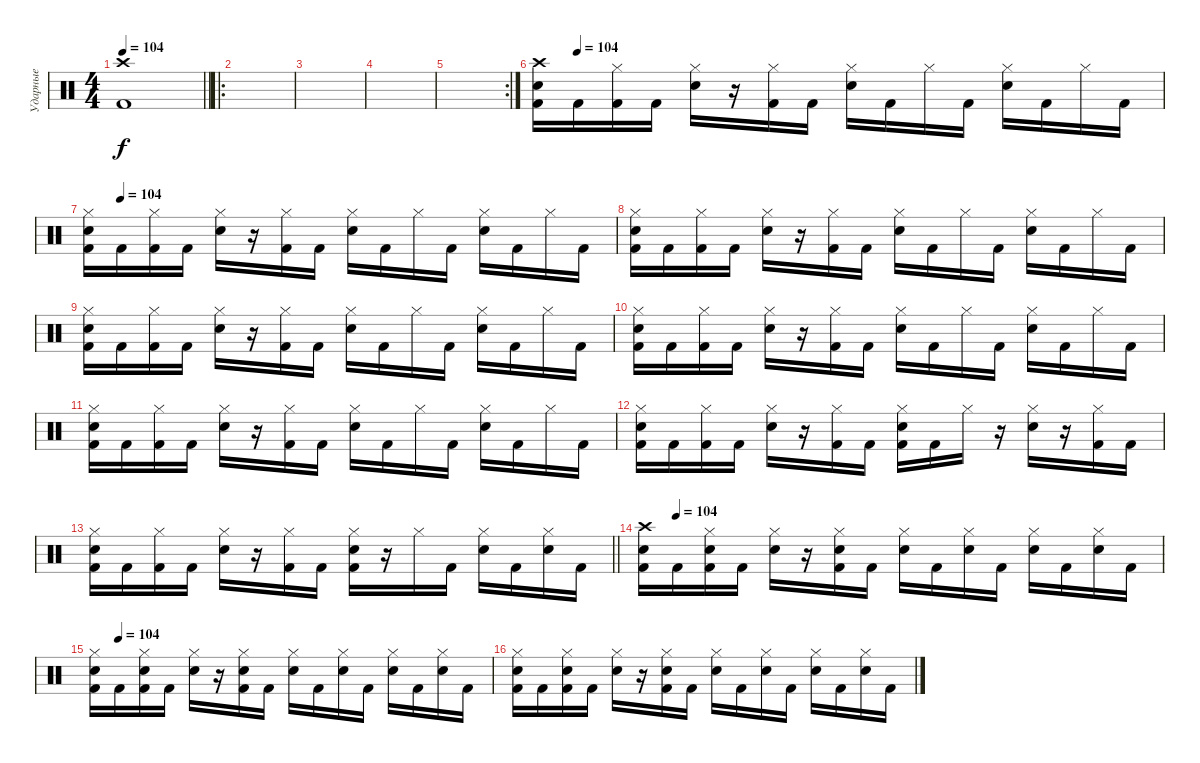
\track ("Ударные" "Ударные") {instrument percussion}
\staff {score}
\articulation defaults
\ts (4 4)
\tempo 104
\clef neutral
\barLineRight lightlight
\ks c
("Crash high (hit)" "Kick (hit) 2").1{dy f} |
\ro
|
|
|
\rc 2
|
\tempo (104 0.0625)
("Crash high (hit)" "Snare (hit) 2" "Kick (hit) 2").16 "Kick (hit) 2".16 ("Hi-Hat (closed)" "Kick (hit) 2").16 "Kick (hit) 2".16 ("Hi-Hat (closed)" "Snare (hit) 2").16 r.16 ("Hi-Hat (closed)" "Kick (hit) 2").16 "Kick (hit) 2".16 ("Hi-Hat (closed)" "Snare (hit) 2").16 "Kick (hit) 2".16 "Hi-Hat (closed)".16 "Kick (hit) 2".16 ("Hi-Hat (closed)" "Snare (hit) 2").16 "Kick (hit) 2".16 "Hi-Hat (closed)".16 "Kick (hit) 2".16 |
\tempo (104 0.0625)
("Hi-Hat (closed)" "Snare (hit) 2" "Kick (hit) 2").16 "Kick (hit) 2".16 ("Hi-Hat (closed)" "Kick (hit) 2").16 "Kick (hit) 2".16 ("Hi-Hat (closed)" "Snare (hit) 2").16 r.16 ("Hi-Hat (closed)" "Kick (hit) 2").16 "Kick (hit) 2".16 ("Hi-Hat (closed)" "Snare (hit) 2").16 "Kick (hit) 2".16 "Hi-Hat (closed)".16 "Kick (hit) 2".16 ("Hi-Hat (closed)" "Snare (hit) 2").16 "Kick (hit) 2".16 "Hi-Hat (closed)".16 "Kick (hit) 2".16 |
("Hi-Hat (closed)" "Snare (hit) 2" "Kick (hit) 2").16 "Kick (hit) 2".16 ("Hi-Hat (closed)" "Kick (hit) 2").16 "Kick (hit) 2".16 ("Hi-Hat (closed)" "Snare (hit) 2").16 r.16 ("Hi-Hat (closed)" "Kick (hit) 2").16 "Kick (hit) 2".16 ("Hi-Hat (closed)" "Snare (hit) 2").16 "Kick (hit) 2".16 "Hi-Hat (closed)".16 "Kick (hit) 2".16 ("Hi-Hat (closed)" "Snare (hit) 2").16 "Kick (hit) 2".16 "Hi-Hat (closed)".16 "Kick (hit) 2".16 |
("Hi-Hat (closed)" "Snare (hit) 2" "Kick (hit) 2").16 "Kick (hit) 2".16 ("Hi-Hat (closed)" "Kick (hit) 2").16 "Kick (hit) 2".16 ("Hi-Hat (closed)" "Snare (hit) 2").16 r.16 ("Hi-Hat (closed)" "Kick (hit) 2").16 "Kick (hit) 2".16 ("Hi-Hat (closed)" "Snare (hit) 2").16 "Kick (hit) 2".16 "Hi-Hat (closed)".16 "Kick (hit) 2".16 ("Hi-Hat (closed)" "Snare (hit) 2").16 "Kick (hit) 2".16 "Hi-Hat (closed)".16 "Kick (hit) 2".16 |
("Hi-Hat (closed)" "Snare (hit) 2" "Kick (hit) 2").16 "Kick (hit) 2".16 ("Hi-Hat (closed)" "Kick (hit) 2").16 "Kick (hit) 2".16 ("Hi-Hat (closed)" "Snare (hit) 2").16 r.16 ("Hi-Hat (closed)" "Kick (hit) 2").16 "Kick (hit) 2".16 ("Hi-Hat (closed)" "Snare (hit) 2").16 "Kick (hit) 2".16 "Hi-Hat (closed)".16 "Kick (hit) 2".16 ("Hi-Hat (closed)" "Snare (hit) 2").16 "Kick (hit) 2".16 "Hi-Hat (closed)".16 "Kick (hit) 2".16 |
("Hi-Hat (closed)" "Snare (hit) 2" "Kick (hit) 2").16 "Kick (hit) 2".16 ("Hi-Hat (closed)" "Kick (hit) 2").16 "Kick (hit) 2".16 ("Hi-Hat (closed)" "Snare (hit) 2").16 r.16 ("Hi-Hat (closed)" "Kick (hit) 2").16 "Kick (hit) 2".16 ("Hi-Hat (closed)" "Snare (hit) 2").16 "Kick (hit) 2".16 "Hi-Hat (closed)".16 "Kick (hit) 2".16 ("Hi-Hat (closed)" "Snare (hit) 2").16 "Kick (hit) 2".16 "Hi-Hat (closed)".16 "Kick (hit) 2".16 |
("Hi-Hat (closed)" "Snare (hit) 2" "Kick (hit) 2").16 "Kick (hit) 2".16 ("Hi-Hat (closed)" "Kick (hit) 2").16 "Kick (hit) 2".16 ("Hi-Hat (closed)" "Snare (hit) 2").16 r.16 ("Hi-Hat (closed)" "Kick (hit) 2").16 "Kick (hit) 2".16 ("Hi-Hat (closed)" "Snare (hit) 2" "Kick (hit) 2").16 "Kick (hit) 2".16 "Hi-Hat (closed)".16 r.16 ("Hi-Hat (closed)" "Snare (hit) 2").16 r.16 ("Hi-Hat (closed)" "Kick (hit) 2").16 "Kick (hit) 2".16 |
\barLineRight lightlight
("Hi-Hat (closed)" "Snare (hit) 2" "Kick (hit) 2").16 "Kick (hit) 2".16 ("Hi-Hat (closed)" "Kick (hit) 2").16 "Kick (hit) 2".16 ("Hi-Hat (closed)" "Snare (hit) 2").16 r.16 ("Hi-Hat (closed)" "Kick (hit) 2").16 "Kick (hit) 2".16 ("Hi-Hat (closed)" "Snare (hit) 2" "Kick (hit) 2").16 r.16 "Hi-Hat (closed)".16 "Kick (hit) 2".16 ("Hi-Hat (closed)" "Snare (hit) 2").16 "Kick (hit) 2".16 ("Hi-Hat (closed)" "Snare (hit) 2").16 "Kick (hit) 2".16 |
\tempo (104 0.0625)
("Crash high (hit)" "Snare (hit) 2" "Kick (hit) 2").16 "Kick (hit) 2".16 ("Hi-Hat (closed)" "Snare (hit) 2" "Kick (hit) 2").16 "Kick (hit) 2".16 ("Hi-Hat (closed)" "Snare (hit) 2").16 r.16 ("Hi-Hat (closed)" "Snare (hit) 2" "Kick (hit) 2").16 "Kick (hit) 2".16 ("Hi-Hat (closed)" "Snare (hit) 2").16 "Kick (hit) 2".16 ("Hi-Hat (closed)" "Snare (hit) 2").16 "Kick (hit) 2".16 ("Hi-Hat (closed)" "Snare (hit) 2").16 "Kick (hit) 2".16 ("Hi-Hat (closed)" "Snare (hit) 2").16 "Kick (hit) 2".16 |
\tempo (104 0.0625)
("Hi-Hat (closed)" "Snare (hit) 2" "Kick (hit) 2").16 "Kick (hit) 2".16 ("Hi-Hat (closed)" "Snare (hit) 2" "Kick (hit) 2").16 "Kick (hit) 2".16 ("Hi-Hat (closed)" "Snare (hit) 2").16 r.16 ("Hi-Hat (closed)" "Snare (hit) 2" "Kick (hit) 2").16 "Kick (hit) 2".16 ("Hi-Hat (closed)" "Snare (hit) 2").16 "Kick (hit) 2".16 ("Hi-Hat (closed)" "Snare (hit) 2").16 "Kick (hit) 2".16 ("Hi-Hat (closed)" "Snare (hit) 2").16 "Kick (hit) 2".16 ("Hi-Hat (closed)" "Snare (hit) 2").16 "Kick (hit) 2".16 |
("Hi-Hat (closed)" "Snare (hit) 2" "Kick (hit) 2").16 "Kick (hit) 2".16 ("Hi-Hat (closed)" "Snare (hit) 2" "Kick (hit) 2").16 "Kick (hit) 2".16 ("Hi-Hat (closed)" "Snare (hit) 2").16 r.16 ("Hi-Hat (closed)" "Snare (hit) 2" "Kick (hit) 2").16 "Kick (hit) 2".16 ("Hi-Hat (closed)" "Snare (hit) 2").16 "Kick (hit) 2".16 ("Hi-Hat (closed)" "Snare (hit) 2").16 "Kick (hit) 2".16 ("Hi-Hat (closed)" "Snare (hit) 2").16 "Kick (hit) 2".16 ("Hi-Hat (closed)" "Snare (hit) 2").16 "Kick (hit) 2".16
